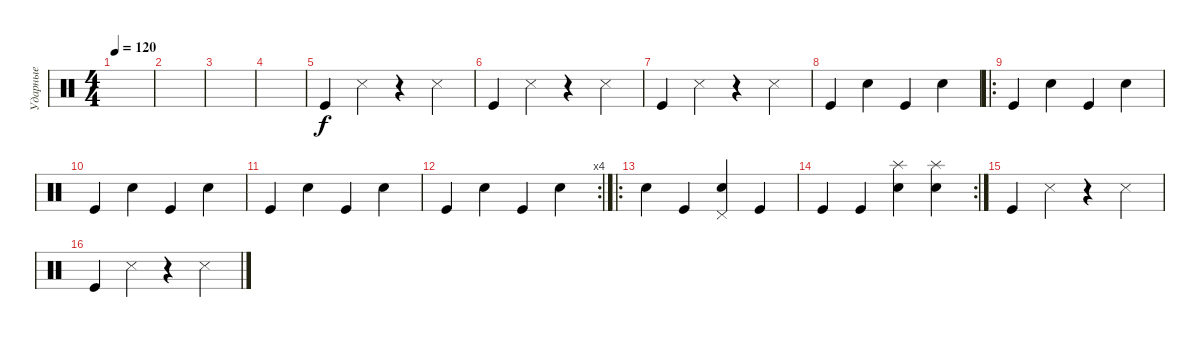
\track ("Ударные" "Ударные") {instrument percussion}
\staff {score}
\articulation defaults
\ts (4 4)
\tempo 120
\clef neutral
\ks c
|
|
|
|
"Kick (hit)".4 "Snare (side stick) 3".4 r.4 "Snare (side stick) 3".4 |
"Kick (hit)".4 "Snare (side stick) 3".4 r.4 "Snare (side stick) 3".4 |
"Kick (hit)".4 "Snare (side stick) 3".4 r.4 "Snare (side stick) 3".4 |
"Kick (hit)".4 "Snare (hit) 2".4 "Kick (hit)".4 "Snare (hit) 2".4 |
\ro "Kick (hit)".4 "Snare (hit) 2".4 "Kick (hit)".4 "Snare (hit) 2".4
|
"Kick (hit)".4 "Snare (hit) 2".4 "Kick (hit)".4 "Snare (hit) 2".4 |
"Kick (hit)".4 "Snare (hit) 2".4 "Kick (hit)".4 "Snare (hit) 2".4 |
\rc 4 "Kick (hit)".4 "Snare (hit) 2".4 "Kick (hit)".4 "Snare (hit) 2".4
|
\ro "Electric Snare (hit)".4 "Kick (hit)".4
("Electric Snare (hit)" "Pedal Hi-Hat (hit)").4 "Kick (hit)".4 |
\rc 2 "Kick (hit)".4 "Kick (hit)".4
("Electric Snare (hit)" "Splash (hit)").4 ("Electric Snare (hit)" "Splash (hit)").4 |
"Kick (hit)".4 "Snare (side stick) 3".4 r.4 "Snare (side stick) 3".4 |
"Kick (hit)".4 "Snare (side stick) 3".4 r.4 "Snare (side stick) 3".4
